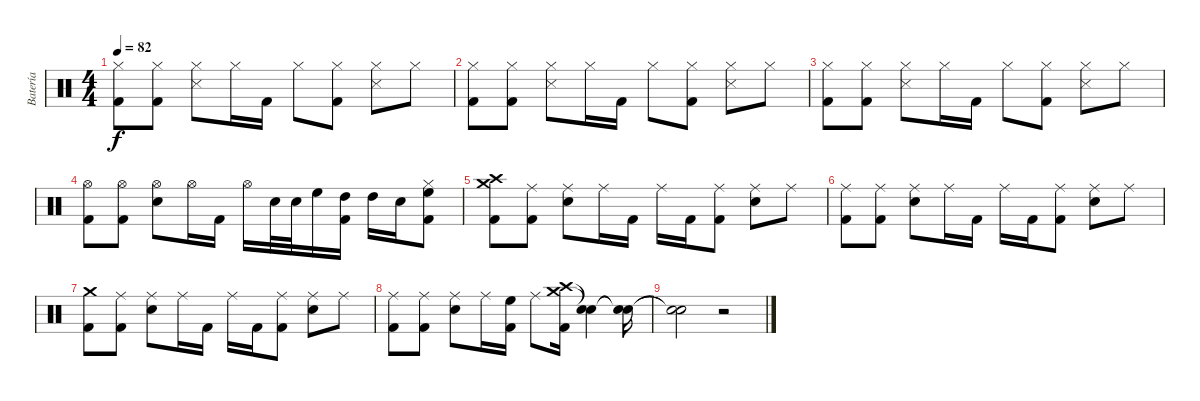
\track ("Batería" "Batería") {instrument percussion}
\staff {score}
\articulation defaults
\ts (4 4)
\tempo 82
\clef neutral
\ks c
("Hi-Hat (closed)" "Kick (hit) 2").8{dy f} ("Hi-Hat (closed)" "Kick (hit) 2").8 ("Hi-Hat (closed)" "Snare (side stick) 3").8 "Hi-Hat (closed)".16 "Kick (hit) 2".16 "Hi-Hat (closed)".8 ("Hi-Hat (closed)" "Kick (hit) 2").8 ("Hi-Hat (closed)" "Snare (side stick) 3").8 "Hi-Hat (closed)".8 |
("Hi-Hat (closed)" "Kick (hit) 2").8 ("Hi-Hat (closed)" "Kick (hit) 2").8 ("Hi-Hat (closed)" "Snare (side stick) 3").8 "Hi-Hat (closed)".16 "Kick (hit) 2".16 "Hi-Hat (closed)".8 ("Hi-Hat (closed)" "Kick (hit) 2").8 ("Hi-Hat (closed)" "Snare (side stick) 3").8 "Hi-Hat (closed)".8 |
("Hi-Hat (closed)" "Kick (hit) 2").8 ("Hi-Hat (closed)" "Kick (hit) 2").8 ("Hi-Hat (closed)" "Snare (side stick) 3").8 "Hi-Hat (closed)".16 "Kick (hit) 2".16 "Hi-Hat (closed)".8 ("Hi-Hat (closed)" "Kick (hit) 2").8 ("Hi-Hat (closed)" "Snare (side stick) 3").8 "Hi-Hat (closed)".8 |
("Hi-Hat (open)" "Kick (hit) 2").8 ("Hi-Hat (open)" "Kick (hit) 2").8 ("Hi-Hat (open)" "Electric Snare (hit)").8 "Hi-Hat (open)".16 "Kick (hit) 2".16 "Hi-Hat (open)".16{volume 14} "Electric Snare (hit)".32 "Electric Snare (hit)".32 "High Floor Tom (hit)".16 ("Kick (hit) 2" "High Tom (hit)").16 "High Tom (hit)".16 "Electric Snare (hit)".16 ("Kick (hit) 2" "High Floor Tom (hit)" "Hi-Hat (closed)").8 |
("Crash medium (hit)" "Crash high (hit)" "Kick (hit) 2").8 ("Ride (middle)" "Kick (hit) 2").8 ("Ride (middle)" "Electric Snare (hit)").8 "Ride (middle)".16 "Kick (hit) 2".16 "Ride (middle)".16 "Kick (hit) 2".16 ("Ride (middle)" "Kick (hit) 2").8 ("Ride (middle)" "Electric Snare (hit)").8 "Ride (middle)".8 |
("Ride (middle)" "Kick (hit) 2").8 ("Ride (middle)" "Kick (hit) 2").8 ("Ride (middle)" "Electric Snare (hit)").8 "Ride (middle)".16 "Kick (hit) 2".16 "Ride (middle)".16 "Kick (hit) 2".16 ("Ride (middle)" "Kick (hit) 2").8 ("Ride (middle)" "Electric Snare (hit)").8 "Ride (middle)".8 |
("Crash medium (hit)" "Kick (hit) 2").8 ("Ride (middle)" "Kick (hit) 2").8 ("Ride (middle)" "Electric Snare (hit)").8 "Ride (middle)".16 "Kick (hit) 2".16 "Ride (middle)".16 "Kick (hit) 2".16 ("Ride (middle)" "Kick (hit) 2").8 ("Ride (middle)" "Electric Snare (hit)").8 "Ride (middle)".8 |
("Ride (middle)" "Kick (hit) 2").8 ("Ride (middle)" "Kick (hit) 2").8 ("Ride (middle)" "Electric Snare (hit)").8 "Ride (middle)".16 ("High Floor Tom (hit)" "Kick (hit) 2").16 "Ride (middle)".8 ("Crash high (hit)" "Crash medium (hit)" "Kick (hit) 2").16 ("Snare (hit)"{t} "Snare (hit)"{t}).4 ("Snare (hit)"{t} "Snare (hit)"{t}).16 |
("Snare (hit)"{t} "Snare (hit)"{t}).2 r.2
